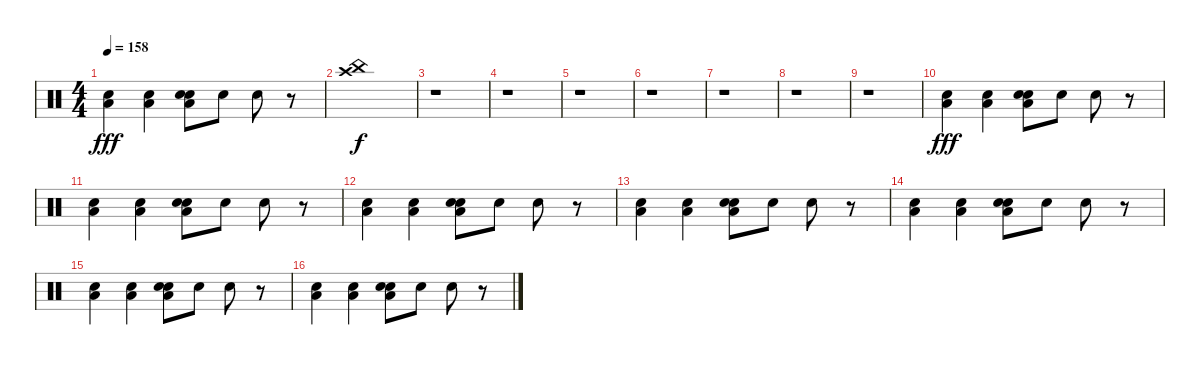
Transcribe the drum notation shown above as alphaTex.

\track "" {instrument percussion}
\staff {score}
\articulation defaults
\ts (4 4)
\tempo 158
\clef neutral
\ks c
("Low Floor Tom (hit)" "Electric Snare (hit)").4{dy fff} ("Low Floor Tom (hit)" "Electric Snare (hit)").4 ("Electric Snare (hit)" "Low Floor Tom (hit)" "Electric Snare (hit)").8 "Electric Snare (hit)".8 "Electric Snare (hit)".8 r.8 |
("China (hit)" "Crash high (hit)").1{dy f} |
r.1 |
r.1 |
r.1 |
r.1 |
r.1 |
r.1 |
r.1 |
("Low Floor Tom (hit)" "Snare (hit) 2").4{dy fff} ("Low Floor Tom (hit)" "Snare (hit) 2").4 ("Electric Snare (hit)" "Low Floor Tom (hit)" "Snare (hit) 2").8 "Electric Snare (hit)".8 "Electric Snare (hit)".8 r.8 |
("Low Floor Tom (hit)" "Snare (hit) 2").4 ("Low Floor Tom (hit)" "Snare (hit) 2").4 ("Electric Snare (hit)" "Low Floor Tom (hit)" "Snare (hit) 2").8 "Electric Snare (hit)".8 "Electric Snare (hit)".8 r.8 |
("Low Floor Tom (hit)" "Electric Snare (hit)").4 ("Low Floor Tom (hit)" "Electric Snare (hit)").4 ("Electric Snare (hit)" "Low Floor Tom (hit)" "Electric Snare (hit)").8 "Electric Snare (hit)".8 "Electric Snare (hit)".8 r.8 |
("Low Floor Tom (hit)" "Electric Snare (hit)").4 ("Low Floor Tom (hit)" "Electric Snare (hit)").4 ("Electric Snare (hit)" "Low Floor Tom (hit)" "Electric Snare (hit)").8 "Electric Snare (hit)".8 "Electric Snare (hit)".8 r.8 |
("Low Floor Tom (hit)" "Electric Snare (hit)").4 ("Low Floor Tom (hit)" "Electric Snare (hit)").4 ("Electric Snare (hit)" "Low Floor Tom (hit)" "Electric Snare (hit)").8 "Electric Snare (hit)".8 "Electric Snare (hit)".8 r.8 |
("Low Floor Tom (hit)" "Electric Snare (hit)").4 ("Low Floor Tom (hit)" "Electric Snare (hit)").4 ("Electric Snare (hit)" "Low Floor Tom (hit)" "Electric Snare (hit)").8 "Electric Snare (hit)".8 "Electric Snare (hit)".8 r.8 |
("Low Floor Tom (hit)" "Snare (hit) 2").4 ("Low Floor Tom (hit)" "Snare (hit) 2").4 ("Electric Snare (hit)" "Low Floor Tom (hit)" "Snare (hit) 2").8 "Electric Snare (hit)".8 "Electric Snare (hit)".8 r.8
